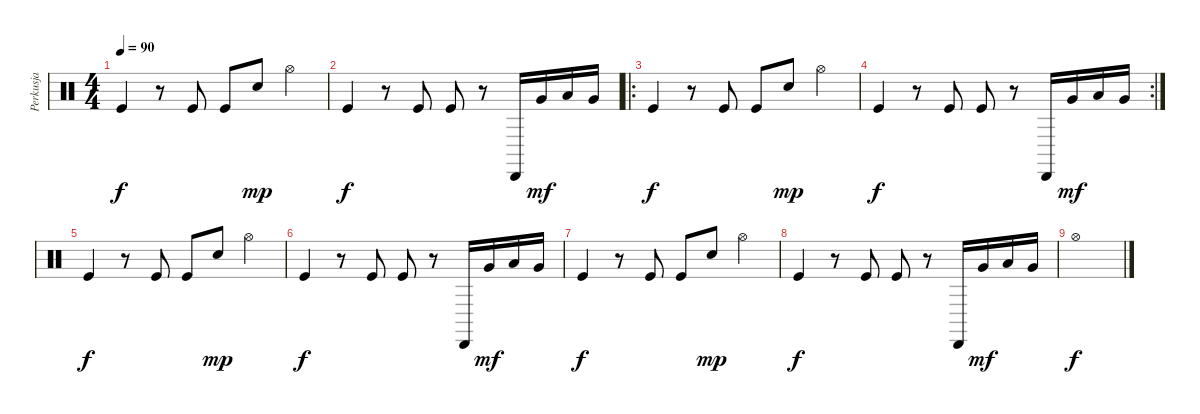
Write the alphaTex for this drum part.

\track ("Perkusja" "Perkusja") {instrument percussion}
\staff {score}
\articulation defaults
\ts (4 4)
\tempo 90
\clef neutral
\ks c "Kick (hit)".4{dy f}
r.8 "Kick (hit)".8 "Kick (hit)".8 "Snare (hit) 2".8{dy mp} "Hi-Hat (open)".4 |
"Kick (hit)".4{dy f} r.8 "Kick (hit)".8 "Kick (hit)".8 r.8 "Cabasa (hit)"{x}.16 "Very Low Tom (hit)".16{dy mf} "Low Tom (hit)".16 "Very Low Tom (hit)".16 |
\ro "Kick (hit)".4{dy f}
r.8 "Kick (hit)".8 "Kick (hit)".8 "Snare (hit) 2".8{dy mp} "Hi-Hat (open)".4 |
\rc 2 "Kick (hit)".4{dy f}
r.8 "Kick (hit)".8 "Kick (hit)".8 r.8 "Cabasa (hit)"{x}.16 "Very Low Tom (hit)".16{dy mf} "Low Tom (hit)".16 "Very Low Tom (hit)".16 |
"Kick (hit)".4{dy f} r.8 "Kick (hit)".8 "Kick (hit)".8 "Snare (hit) 2".8{dy mp} "Hi-Hat (open)".4 |
"Kick (hit)".4{dy f} r.8 "Kick (hit)".8 "Kick (hit)".8 r.8 "Cabasa (hit)"{x}.16 "Very Low Tom (hit)".16{dy mf} "Low Tom (hit)".16 "Very Low Tom (hit)".16 |
"Kick (hit)".4{dy f} r.8 "Kick (hit)".8 "Kick (hit)".8 "Snare (hit) 2".8{dy mp} "Hi-Hat (open)".4 |
"Kick (hit)".4{dy f} r.8 "Kick (hit)".8 "Kick (hit)".8 r.8 "Cabasa (hit)"{x}.16 "Very Low Tom (hit)".16{dy mf} "Low Tom (hit)".16 "Very Low Tom (hit)".16 |
"Hi-Hat (open)".1{dy f}
